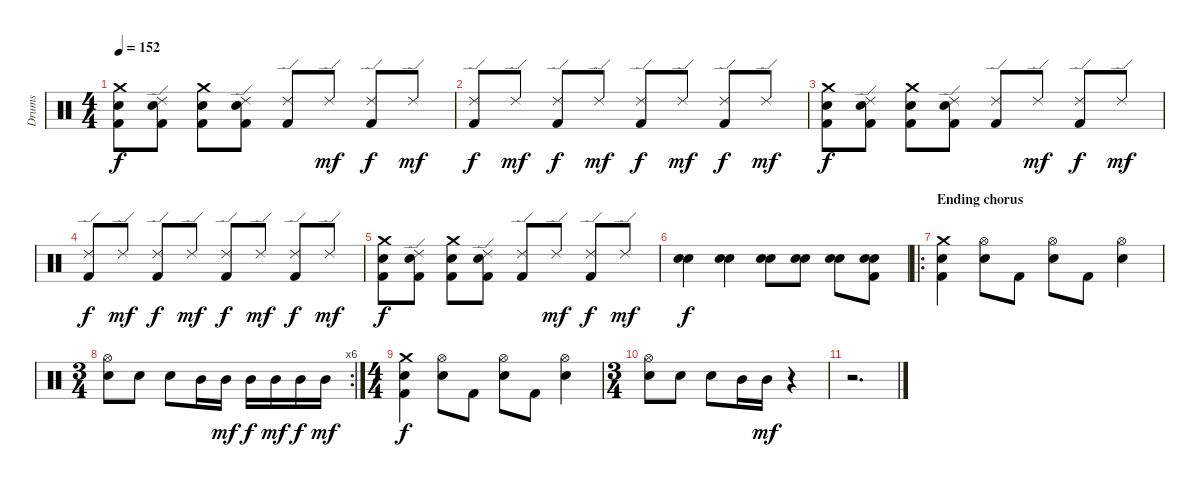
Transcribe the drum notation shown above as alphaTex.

\track ("Drums" "Drums") {instrument percussion}
\staff {score}
\articulation defaults
\ts (4 4)
\tempo 152
\clef neutral
\ks c
("Crash medium (hit)" "Electric Snare (hit)" "Kick (hit) 2").8{dy f} ("Ride (edge) 2" "Electric Snare (hit)" "Kick (hit) 2").8 ("Crash medium (hit)" "Electric Snare (hit)" "Kick (hit) 2").8 ("Ride (edge) 2" "Electric Snare (hit)" "Kick (hit) 2").8 ("Ride (edge) 2" "Kick (hit) 2").8 "Ride (edge) 2".8{dy mf} ("Ride (edge) 2" "Kick (hit) 2").8{dy f} "Ride (edge) 2".8{dy mf} |
("Ride (edge) 2" "Kick (hit) 2").8{dy f} "Ride (edge) 2".8{dy mf} ("Ride (edge) 2" "Kick (hit) 2").8{dy f} "Ride (edge) 2".8{dy mf} ("Ride (edge) 2" "Kick (hit) 2").8{dy f} "Ride (edge) 2".8{dy mf} ("Ride (edge) 2" "Kick (hit) 2").8{dy f} "Ride (edge) 2".8{dy mf} |
("Crash medium (hit)" "Electric Snare (hit)" "Kick (hit) 2").8{dy f} ("Ride (edge) 2" "Electric Snare (hit)" "Kick (hit) 2").8 ("Crash medium (hit)" "Electric Snare (hit)" "Kick (hit) 2").8 ("Ride (edge) 2" "Electric Snare (hit)" "Kick (hit) 2").8 ("Ride (edge) 2" "Kick (hit) 2").8 "Ride (edge) 2".8{dy mf} ("Ride (edge) 2" "Kick (hit) 2").8{dy f} "Ride (edge) 2".8{dy mf} |
("Ride (edge) 2" "Kick (hit) 2").8{dy f} "Ride (edge) 2".8{dy mf} ("Ride (edge) 2" "Kick (hit) 2").8{dy f} "Ride (edge) 2".8{dy mf} ("Ride (edge) 2" "Kick (hit) 2").8{dy f} "Ride (edge) 2".8{dy mf} ("Ride (edge) 2" "Kick (hit) 2").8{dy f} "Ride (edge) 2".8{dy mf} |
("Crash medium (hit)" "Electric Snare (hit)" "Kick (hit) 2").8{dy f} ("Ride (edge) 2" "Electric Snare (hit)" "Kick (hit) 2").8 ("Crash medium (hit)" "Electric Snare (hit)" "Kick (hit) 2").8 ("Ride (edge) 2" "Electric Snare (hit)" "Kick (hit) 2").8 ("Ride (edge) 2" "Kick (hit) 2").8 "Ride (edge) 2".8{dy mf} ("Ride (edge) 2" "Kick (hit) 2").8{dy f} "Ride (edge) 2".8{dy mf} |
("Snare (hit) 2" "Electric Snare (hit)").4{dy f} ("Snare (hit) 2" "Electric Snare (hit)").4 ("Snare (hit) 2" "Electric Snare (hit)").8 ("Snare (hit) 2" "Electric Snare (hit)").8 ("Snare (hit) 2" "Electric Snare (hit)").8 ("Snare (hit) 2" "Electric Snare (hit)" "Kick (hit) 2").8 |
\ro
\section ("" "Ending chorus")
("Crash medium (hit)" "Electric Snare (hit)" "Kick (hit) 2").4 ("Hi-Hat (open)" "Electric Snare (hit)").8 "Kick (hit) 2".8 ("Hi-Hat (open)" "Electric Snare (hit)").8 "Kick (hit) 2".8 ("Hi-Hat (open)" "Electric Snare (hit)").4 |
\rc 6
\ts (3 4)
("Hi-Hat (open)" "Electric Snare (hit)").8 "Electric Snare (hit)".8 "Electric Snare (hit)".8 "Mid Tom (hit)".16 "Mid Tom (hit)".16{dy mf} "Mid Tom (hit)".16{dy f} "Mid Tom (hit)".16{dy mf} "Mid Tom (hit)".16{dy f} "Mid Tom (hit)".16{dy mf} |
\ts (4 4)
("Crash medium (hit)" "Electric Snare (hit)" "Kick (hit) 2").4{dy f} ("Hi-Hat (open)" "Electric Snare (hit)").8 "Kick (hit) 2".8 ("Hi-Hat (open)" "Electric Snare (hit)").8 "Kick (hit) 2".8 ("Hi-Hat (open)" "Electric Snare (hit)").4 |
\ts (3 4)
("Hi-Hat (open)" "Electric Snare (hit)").8 "Electric Snare (hit)".8 "Electric Snare (hit)".8 "Mid Tom (hit)".16 "Mid Tom (hit)".16{dy mf} r.4 |
r.2{d}
